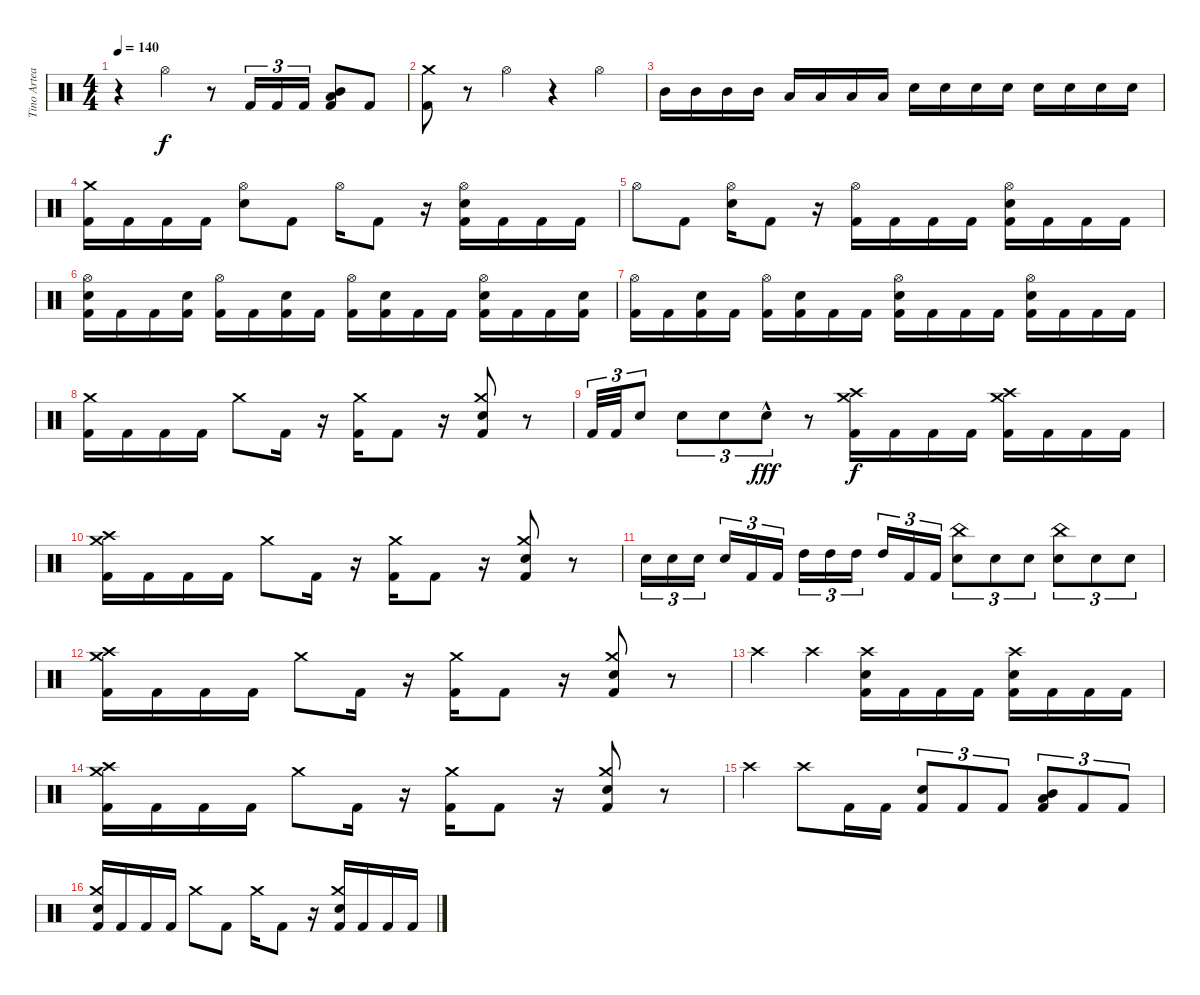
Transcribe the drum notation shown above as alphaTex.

\track ("Tino Arteaga" "Tino Artea") {instrument percussion}
\staff {score}
\articulation defaults
\ts (4 4)
\tempo 140
\clef neutral
\ks c
r.4{dy f} "Hi-Hat (open)".4 r.8 "Kick (hit) 2".16{tu (3 2)} "Kick (hit) 2".16{tu (3 2)} "Kick (hit) 2".16{tu (3 2)} ("Low Tom (hit)" "Mid Tom (hit)" "Kick (hit) 2").8 "Kick (hit) 2".8 |
("Crash medium (hit)" "Kick (hit) 2").8 r.8 "Hi-Hat (open)".4 r.4 "Hi-Hat (open)".4 |
"Mid Tom (hit)".16 "Mid Tom (hit)".16 "Mid Tom (hit)".16 "Mid Tom (hit)".16 "Low Tom (hit)".16 "Low Tom (hit)".16 "Low Tom (hit)".16 "Low Tom (hit)".16 "Electric Snare (hit)".16 "Electric Snare (hit)".16 "Electric Snare (hit)".16 "Electric Snare (hit)".16 "Electric Snare (hit)".16 "Electric Snare (hit)".16 "Electric Snare (hit)".16 "Electric Snare (hit)".16 |
("Crash medium (hit)" "Kick (hit) 2").16 "Kick (hit) 2".16 "Kick (hit) 2".16 "Kick (hit) 2".16 ("Hi-Hat (open)" "Electric Snare (hit)").8 "Kick (hit) 2".8 "Hi-Hat (open)".16 "Kick (hit) 2".8 r.16 ("Hi-Hat (open)" "Electric Snare (hit)" "Kick (hit) 2").16 "Kick (hit) 2".16 "Kick (hit) 2".16 "Kick (hit) 2".16 |
"Hi-Hat (open)".8 "Kick (hit) 2".8 ("Hi-Hat (open)" "Electric Snare (hit)").16 "Kick (hit) 2".8 r.16 ("Hi-Hat (open)" "Kick (hit) 2").16 "Kick (hit) 2".16 "Kick (hit) 2".16 "Kick (hit) 2".16 ("Hi-Hat (open)" "Electric Snare (hit)" "Kick (hit) 2").16 "Kick (hit) 2".16 "Kick (hit) 2".16 "Kick (hit) 2".16 |
("Hi-Hat (open)" "Electric Snare (hit)" "Kick (hit) 2").16 "Kick (hit) 2".16 "Kick (hit) 2".16 ("Electric Snare (hit)" "Kick (hit) 2").16 ("Hi-Hat (open)" "Kick (hit) 2").16 "Kick (hit) 2".16 ("Electric Snare (hit)" "Kick (hit) 2").16 "Kick (hit) 2".16 ("Hi-Hat (open)" "Kick (hit) 2").16 ("Electric Snare (hit)" "Kick (hit) 2").16 "Kick (hit) 2".16 "Kick (hit) 2".16 ("Hi-Hat (open)" "Electric Snare (hit)" "Kick (hit) 2").16 "Kick (hit) 2".16 "Kick (hit) 2".16 ("Electric Snare (hit)" "Kick (hit) 2").16 |
("Hi-Hat (open)" "Kick (hit) 2").16 "Kick (hit) 2".16 ("Electric Snare (hit)" "Kick (hit) 2").16 "Kick (hit) 2".16 ("Hi-Hat (open)" "Kick (hit) 2").16 ("Electric Snare (hit)" "Kick (hit) 2").16 "Kick (hit) 2".16 "Kick (hit) 2".16 ("Hi-Hat (open)" "Electric Snare (hit)" "Kick (hit) 2").16 "Kick (hit) 2".16 "Kick (hit) 2".16 "Kick (hit) 2".16 ("Hi-Hat (open)" "Electric Snare (hit)" "Kick (hit) 2").16 "Kick (hit) 2".16 "Kick (hit) 2".16 "Kick (hit) 2".16 |
("Crash medium (hit)" "Kick (hit) 2").16 "Kick (hit) 2".16 "Kick (hit) 2".16 "Kick (hit) 2".16 "Crash medium (hit)".8 "Kick (hit) 2".16 r.16 ("Crash medium (hit)" "Kick (hit) 2").16 "Kick (hit) 2".8 r.16 ("Crash medium (hit)" "Electric Snare (hit)" "Kick (hit) 2").8 r.8 |
"Kick (hit) 2".32{tu (3 2)} "Kick (hit) 2".32{tu (3 2)} "Electric Snare (hit)".8{tu (3 2)} "Electric Snare (hit)".8{tu (3 2)} "Electric Snare (hit)".8{tu (3 2)} "Electric Snare (hit)"{hac}.8{tu (3 2) dy fff} r.8 ("Crash medium (hit)" "Crash high (hit)" "Kick (hit) 2").16{dy f} "Kick (hit) 2".16 "Kick (hit) 2".16 "Kick (hit) 2".16 ("Crash medium (hit)" "Crash high (hit)" "Kick (hit) 2").16 "Kick (hit) 2".16 "Kick (hit) 2".16 "Kick (hit) 2".16 |
("Crash medium (hit)" "Crash high (hit)" "Kick (hit) 2").16 "Kick (hit) 2".16 "Kick (hit) 2".16 "Kick (hit) 2".16 "Crash medium (hit)".8 "Kick (hit) 2".16 r.16 ("Crash medium (hit)" "Kick (hit) 2").16 "Kick (hit) 2".8 r.16 ("Crash medium (hit)" "Electric Snare (hit)" "Kick (hit) 2").8 r.8 |
"Electric Snare (hit)".16{tu (3 2)} "Electric Snare (hit)".16{tu (3 2)} "Electric Snare (hit)".16{tu (3 2) beam splitsecondary} "Electric Snare (hit)".16{tu (3 2)} "Kick (hit) 2".16{tu (3 2)} "Kick (hit) 2".16{tu (3 2)} "High Tom (hit)".16{tu (3 2)} "High Tom (hit)".16{tu (3 2)} "High Tom (hit)".16{tu (3 2) beam splitsecondary} "High Tom (hit)".16{tu (3 2)} "Kick (hit) 2".16{tu (3 2)} "Kick (hit) 2".16{tu (3 2)} ("China (hit)" "Electric Snare (hit)").8{tu (3 2)} "Electric Snare (hit)".8{tu (3 2)} "Electric Snare (hit)".8{tu (3 2)} ("China (hit)" "Electric Snare (hit)").8{tu (3 2)} "Electric Snare (hit)".8{tu (3 2)} "Electric Snare (hit)".8{tu (3 2)} |
("Crash medium (hit)" "Crash high (hit)" "Kick (hit) 2").16 "Kick (hit) 2".16 "Kick (hit) 2".16 "Kick (hit) 2".16 "Crash medium (hit)".8 "Kick (hit) 2".16 r.16 ("Crash medium (hit)" "Kick (hit) 2").16 "Kick (hit) 2".8 r.16 ("Crash medium (hit)" "Electric Snare (hit)" "Kick (hit) 2").8 r.8 |
"Crash high (hit)".4 "Crash high (hit)".4 ("Crash high (hit)" "Electric Snare (hit)" "Kick (hit) 2").16 "Kick (hit) 2".16 "Kick (hit) 2".16 "Kick (hit) 2".16 ("Crash high (hit)" "Electric Snare (hit)" "Kick (hit) 2").16 "Kick (hit) 2".16 "Kick (hit) 2".16 "Kick (hit) 2".16 |
("Crash medium (hit)" "Crash high (hit)" "Kick (hit) 2").16 "Kick (hit) 2".16 "Kick (hit) 2".16 "Kick (hit) 2".16 "Crash medium (hit)".8 "Kick (hit) 2".16 r.16 ("Crash medium (hit)" "Kick (hit) 2").16 "Kick (hit) 2".8 r.16 ("Crash medium (hit)" "Electric Snare (hit)" "Kick (hit) 2").8 r.8 |
"Crash high (hit)".4 "Crash high (hit)".8 "Kick (hit) 2".16 "Kick (hit) 2".16 ("Electric Snare (hit)" "Kick (hit) 2").8{tu (3 2)} "Kick (hit) 2".8{tu (3 2)} "Kick (hit) 2".8{tu (3 2)} ("Low Tom (hit)" "Mid Tom (hit)" "Kick (hit) 2").8{tu (3 2)} "Kick (hit) 2".8{tu (3 2)} "Kick (hit) 2".8{tu (3 2)} |
("Crash medium (hit)" "Electric Snare (hit)" "Kick (hit) 2").16 "Kick (hit) 2".16 "Kick (hit) 2".16 "Kick (hit) 2".16 "Crash medium (hit)".8 "Kick (hit) 2".8 "Crash medium (hit)".16 "Kick (hit) 2".8 r.16 ("Crash medium (hit)" "Electric Snare (hit)" "Kick (hit) 2").16 "Kick (hit) 2".16 "Kick (hit) 2".16 "Kick (hit) 2".16
